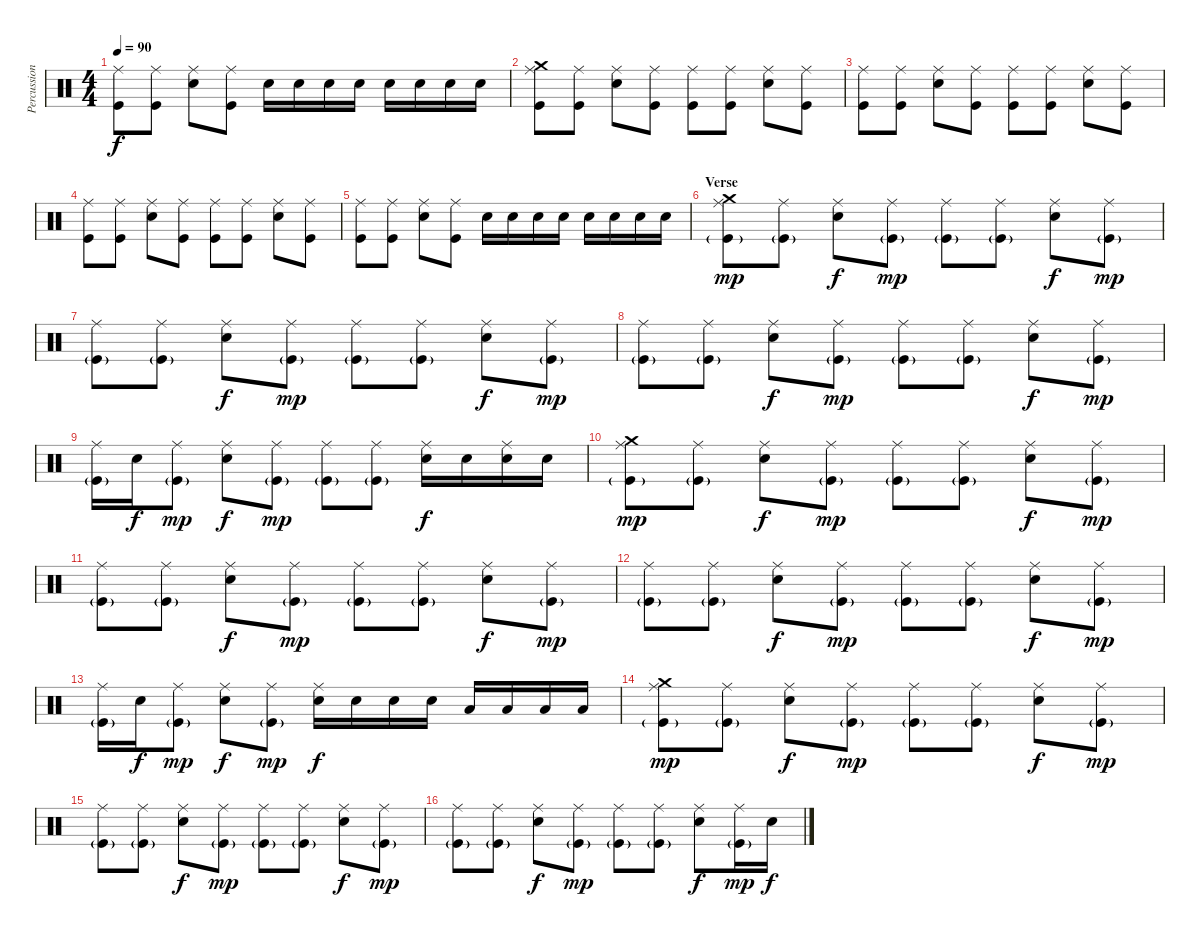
\track ("Percussions" "Percussion") {instrument percussion}
\staff {score}
\articulation defaults
\ts (4 4)
\tempo 90
\clef neutral
\ks c
("Ride (middle)" "Kick (hit)").8{dy f} ("Ride (middle)" "Kick (hit)").8 ("Ride (middle)" "Snare (hit) 2").8 ("Ride (middle)" "Kick (hit)").8 "Snare (hit) 2".16 "Snare (hit) 2".16 "Snare (hit) 2".16 "Snare (hit) 2".16 "Snare (hit) 2".16 "Snare (hit) 2".16 "Snare (hit) 2".16 "Snare (hit) 2".16 |
("Ride (middle)" "Crash medium (hit)" "Kick (hit)").8 ("Ride (middle)" "Kick (hit)").8 ("Ride (middle)" "Snare (hit) 2").8 ("Ride (middle)" "Kick (hit)").8 ("Ride (middle)" "Kick (hit)").8 ("Ride (middle)" "Kick (hit)").8 ("Ride (middle)" "Snare (hit) 2").8 ("Ride (middle)" "Kick (hit)").8 |
("Ride (middle)" "Kick (hit)").8 ("Ride (middle)" "Kick (hit)").8 ("Ride (middle)" "Snare (hit) 2").8 ("Ride (middle)" "Kick (hit)").8 ("Ride (middle)" "Kick (hit)").8 ("Ride (middle)" "Kick (hit)").8 ("Ride (middle)" "Snare (hit) 2").8 ("Ride (middle)" "Kick (hit)").8 |
("Ride (middle)" "Kick (hit)").8 ("Ride (middle)" "Kick (hit)").8 ("Ride (middle)" "Snare (hit) 2").8 ("Ride (middle)" "Kick (hit)").8 ("Ride (middle)" "Kick (hit)").8 ("Ride (middle)" "Kick (hit)").8 ("Ride (middle)" "Snare (hit) 2").8 ("Ride (middle)" "Kick (hit)").8 |
("Ride (middle)" "Kick (hit)").8 ("Ride (middle)" "Kick (hit)").8 ("Ride (middle)" "Snare (hit) 2").8 ("Ride (middle)" "Kick (hit)").8 "Snare (hit) 2".16 "Snare (hit) 2".16 "Snare (hit) 2".16 "Snare (hit) 2".16 "Snare (hit) 2".16 "Snare (hit) 2".16 "Snare (hit) 2".16 "Snare (hit) 2".16 |
\section ("" "Verse")
("Ride (middle)" "Crash medium (hit)" "Kick (hit)"{g}).8{dy mp} ("Ride (middle)" "Kick (hit)"{g}).8 ("Ride (middle)" "Snare (hit) 2").8{dy f} ("Ride (middle)" "Kick (hit)"{g}).8{dy mp} ("Ride (middle)" "Kick (hit)"{g}).8 ("Ride (middle)" "Kick (hit)"{g}).8 ("Ride (middle)" "Snare (hit) 2").8{dy f} ("Ride (middle)" "Kick (hit)"{g}).8{dy mp} |
("Ride (middle)" "Kick (hit)"{g}).8 ("Ride (middle)" "Kick (hit)"{g}).8 ("Ride (middle)" "Snare (hit) 2").8{dy f} ("Ride (middle)" "Kick (hit)"{g}).8{dy mp} ("Ride (middle)" "Kick (hit)"{g}).8 ("Ride (middle)" "Kick (hit)"{g}).8 ("Ride (middle)" "Snare (hit) 2").8{dy f} ("Ride (middle)" "Kick (hit)"{g}).8{dy mp} |
("Ride (middle)" "Kick (hit)"{g}).8 ("Ride (middle)" "Kick (hit)"{g}).8 ("Ride (middle)" "Snare (hit) 2").8{dy f} ("Ride (middle)" "Kick (hit)"{g}).8{dy mp} ("Ride (middle)" "Kick (hit)"{g}).8 ("Ride (middle)" "Kick (hit)"{g}).8 ("Ride (middle)" "Snare (hit) 2").8{dy f} ("Ride (middle)" "Kick (hit)"{g}).8{dy mp} |
("Ride (middle)" "Kick (hit)"{g}).16 "Snare (hit) 2".16{dy f} ("Ride (middle)" "Kick (hit)"{g}).8{dy mp} ("Ride (middle)" "Snare (hit) 2").8{dy f} ("Ride (middle)" "Kick (hit)"{g}).8{dy mp} ("Ride (middle)" "Kick (hit)"{g}).8 ("Ride (middle)" "Kick (hit)"{g}).8 ("Ride (middle)" "Snare (hit) 2").16{dy f} "Snare (hit) 2".16 ("Ride (middle)" "Snare (hit) 2").16 "Snare (hit) 2".16 |
("Ride (middle)" "Crash medium (hit)" "Kick (hit)"{g}).8{dy mp} ("Ride (middle)" "Kick (hit)"{g}).8 ("Ride (middle)" "Snare (hit) 2").8{dy f} ("Ride (middle)" "Kick (hit)"{g}).8{dy mp} ("Ride (middle)" "Kick (hit)"{g}).8 ("Ride (middle)" "Kick (hit)"{g}).8 ("Ride (middle)" "Snare (hit) 2").8{dy f} ("Ride (middle)" "Kick (hit)"{g}).8{dy mp} |
("Ride (middle)" "Kick (hit)"{g}).8 ("Ride (middle)" "Kick (hit)"{g}).8 ("Ride (middle)" "Snare (hit) 2").8{dy f} ("Ride (middle)" "Kick (hit)"{g}).8{dy mp} ("Ride (middle)" "Kick (hit)"{g}).8 ("Ride (middle)" "Kick (hit)"{g}).8 ("Ride (middle)" "Snare (hit) 2").8{dy f} ("Ride (middle)" "Kick (hit)"{g}).8{dy mp} |
("Ride (middle)" "Kick (hit)"{g}).8 ("Ride (middle)" "Kick (hit)"{g}).8 ("Ride (middle)" "Snare (hit) 2").8{dy f} ("Ride (middle)" "Kick (hit)"{g}).8{dy mp} ("Ride (middle)" "Kick (hit)"{g}).8 ("Ride (middle)" "Kick (hit)"{g}).8 ("Ride (middle)" "Snare (hit) 2").8{dy f} ("Ride (middle)" "Kick (hit)"{g}).8{dy mp} |
("Ride (middle)" "Kick (hit)"{g}).16 "Snare (hit) 2".16{dy f} ("Ride (middle)" "Kick (hit)"{g}).8{dy mp} ("Ride (middle)" "Snare (hit) 2").8{dy f} ("Ride (middle)" "Kick (hit)"{g}).8{dy mp} ("Ride (middle)" "Snare (hit) 2").16{dy f} "Snare (hit) 2".16 "Snare (hit) 2".16 "Snare (hit) 2".16 "Low Tom (hit)".16 "Low Tom (hit)".16 "Low Tom (hit)".16 "Low Tom (hit)".16 |
("Ride (middle)" "Crash medium (hit)" "Kick (hit)"{g}).8{dy mp} ("Ride (middle)" "Kick (hit)"{g}).8 ("Ride (middle)" "Snare (hit) 2").8{dy f} ("Ride (middle)" "Kick (hit)"{g}).8{dy mp} ("Ride (middle)" "Kick (hit)"{g}).8 ("Ride (middle)" "Kick (hit)"{g}).8 ("Ride (middle)" "Snare (hit) 2").8{dy f} ("Ride (middle)" "Kick (hit)"{g}).8{dy mp} |
("Ride (middle)" "Kick (hit)"{g}).8 ("Ride (middle)" "Kick (hit)"{g}).8 ("Ride (middle)" "Snare (hit) 2").8{dy f} ("Ride (middle)" "Kick (hit)"{g}).8{dy mp} ("Ride (middle)" "Kick (hit)"{g}).8 ("Ride (middle)" "Kick (hit)"{g}).8 ("Ride (middle)" "Snare (hit) 2").8{dy f} ("Ride (middle)" "Kick (hit)"{g}).8{dy mp} |
("Ride (middle)" "Kick (hit)"{g}).8 ("Ride (middle)" "Kick (hit)"{g}).8 ("Ride (middle)" "Snare (hit) 2").8{dy f} ("Ride (middle)" "Kick (hit)"{g}).8{dy mp} ("Ride (middle)" "Kick (hit)"{g}).8 ("Ride (middle)" "Kick (hit)"{g}).8 ("Ride (middle)" "Snare (hit) 2").8{dy f} ("Ride (middle)" "Kick (hit)"{g}).16{dy mp} "Snare (hit) 2".16{dy f}
